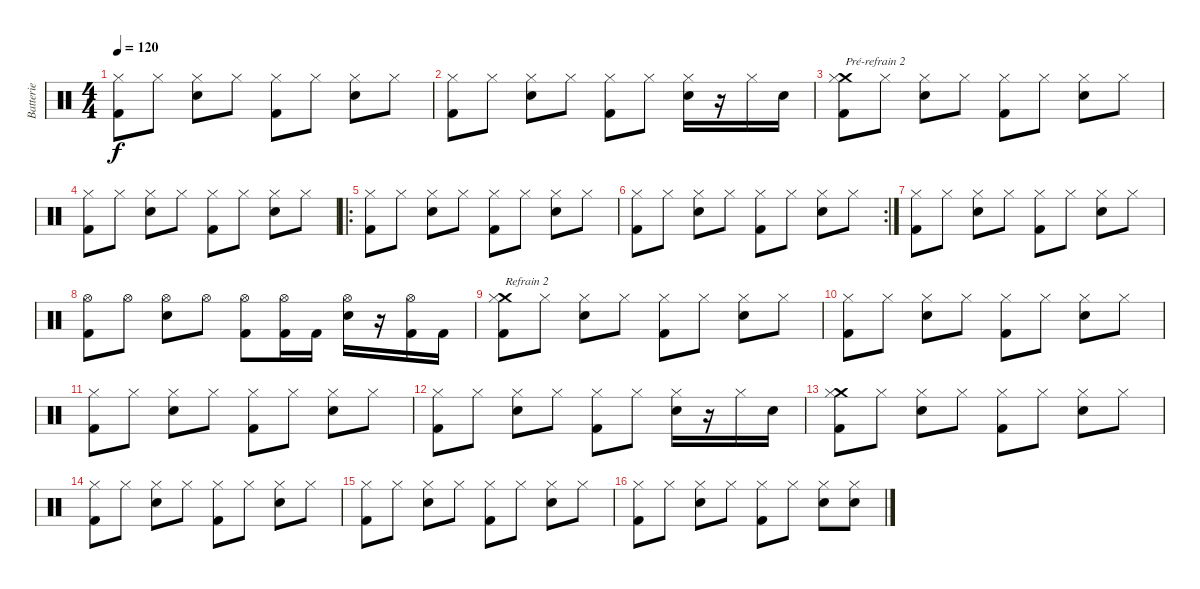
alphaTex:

\track ("Batterie" "Batterie") {instrument percussion}
\staff {score}
\articulation defaults
\ts (4 4)
\tempo 120
\clef neutral
\ks c
("Kick (hit) 2" "Hi-Hat (closed)").8{dy f} "Hi-Hat (closed)".8 ("Snare (hit) 2" "Hi-Hat (closed)").8 "Hi-Hat (closed)".8 ("Kick (hit) 2" "Hi-Hat (closed)").8 "Hi-Hat (closed)".8 ("Snare (hit) 2" "Hi-Hat (closed)").8 "Hi-Hat (closed)".8 |
("Kick (hit) 2" "Hi-Hat (closed)").8 "Hi-Hat (closed)".8 ("Snare (hit) 2" "Hi-Hat (closed)").8 "Hi-Hat (closed)".8 ("Kick (hit) 2" "Hi-Hat (closed)").8 "Hi-Hat (closed)".8 ("Snare (hit) 2" "Hi-Hat (closed)").16 r.16 "Hi-Hat (closed)".16 "Snare (hit) 2".16 |
("Kick (hit) 2" "Crash medium (hit)" "Hi-Hat (closed)").8{txt "Pré-refrain 2"} "Hi-Hat (closed)".8 ("Snare (hit) 2" "Hi-Hat (closed)").8 "Hi-Hat (closed)".8 ("Kick (hit) 2" "Hi-Hat (closed)").8 "Hi-Hat (closed)".8 ("Snare (hit) 2" "Hi-Hat (closed)").8 "Hi-Hat (closed)".8 |
("Kick (hit) 2" "Hi-Hat (closed)").8 "Hi-Hat (closed)".8 ("Snare (hit) 2" "Hi-Hat (closed)").8 "Hi-Hat (closed)".8 ("Kick (hit) 2" "Hi-Hat (closed)").8 "Hi-Hat (closed)".8 ("Snare (hit) 2" "Hi-Hat (closed)").8 "Hi-Hat (closed)".8 |
\ro
("Kick (hit) 2" "Hi-Hat (closed)").8 "Hi-Hat (closed)".8 ("Snare (hit) 2" "Hi-Hat (closed)").8 "Hi-Hat (closed)".8 ("Kick (hit) 2" "Hi-Hat (closed)").8 "Hi-Hat (closed)".8 ("Snare (hit) 2" "Hi-Hat (closed)").8 "Hi-Hat (closed)".8 |
\rc 2
("Kick (hit) 2" "Hi-Hat (closed)").8 "Hi-Hat (closed)".8 ("Snare (hit) 2" "Hi-Hat (closed)").8 "Hi-Hat (closed)".8 ("Kick (hit) 2" "Hi-Hat (closed)").8 "Hi-Hat (closed)".8 ("Snare (hit) 2" "Hi-Hat (closed)").8 "Hi-Hat (closed)".8 |
("Kick (hit) 2" "Hi-Hat (closed)").8 "Hi-Hat (closed)".8 ("Snare (hit) 2" "Hi-Hat (closed)").8 "Hi-Hat (closed)".8 ("Kick (hit) 2" "Hi-Hat (closed)").8 "Hi-Hat (closed)".8 ("Snare (hit) 2" "Hi-Hat (closed)").8 "Hi-Hat (closed)".8 |
("Kick (hit) 2" "Hi-Hat (open)").8 "Hi-Hat (open)".8 ("Snare (hit) 2" "Hi-Hat (open)").8 "Hi-Hat (open)".8 ("Kick (hit) 2" "Hi-Hat (open)").8 ("Kick (hit) 2" "Hi-Hat (open)").16 "Kick (hit) 2".16 ("Snare (hit) 2" "Hi-Hat (open)").16 r.16 ("Kick (hit) 2" "Hi-Hat (open)").16 "Kick (hit) 2".16 |
("Kick (hit) 2" "Crash medium (hit)" "Hi-Hat (closed)").8{txt "Refrain 2"} "Hi-Hat (closed)".8 ("Snare (hit) 2" "Hi-Hat (closed)").8 "Hi-Hat (closed)".8 ("Kick (hit) 2" "Hi-Hat (closed)").8 "Hi-Hat (closed)".8 ("Snare (hit) 2" "Hi-Hat (closed)").8 "Hi-Hat (closed)".8 |
("Kick (hit) 2" "Hi-Hat (closed)").8 "Hi-Hat (closed)".8 ("Snare (hit) 2" "Hi-Hat (closed)").8 "Hi-Hat (closed)".8 ("Kick (hit) 2" "Hi-Hat (closed)").8 "Hi-Hat (closed)".8 ("Snare (hit) 2" "Hi-Hat (closed)").8 "Hi-Hat (closed)".8 |
("Kick (hit) 2" "Hi-Hat (closed)").8 "Hi-Hat (closed)".8 ("Snare (hit) 2" "Hi-Hat (closed)").8 "Hi-Hat (closed)".8 ("Kick (hit) 2" "Hi-Hat (closed)").8 "Hi-Hat (closed)".8 ("Snare (hit) 2" "Hi-Hat (closed)").8 "Hi-Hat (closed)".8 |
("Kick (hit) 2" "Hi-Hat (closed)").8 "Hi-Hat (closed)".8 ("Snare (hit) 2" "Hi-Hat (closed)").8 "Hi-Hat (closed)".8 ("Kick (hit) 2" "Hi-Hat (closed)").8 "Hi-Hat (closed)".8 ("Snare (hit) 2" "Hi-Hat (closed)").16 r.16 "Hi-Hat (closed)".16 "Snare (hit) 2".16 |
("Kick (hit) 2" "Crash medium (hit)" "Hi-Hat (closed)").8 "Hi-Hat (closed)".8 ("Snare (hit) 2" "Hi-Hat (closed)").8 "Hi-Hat (closed)".8 ("Kick (hit) 2" "Hi-Hat (closed)").8 "Hi-Hat (closed)".8 ("Snare (hit) 2" "Hi-Hat (closed)").8 "Hi-Hat (closed)".8 |
("Kick (hit) 2" "Hi-Hat (closed)").8 "Hi-Hat (closed)".8 ("Snare (hit) 2" "Hi-Hat (closed)").8 "Hi-Hat (closed)".8 ("Kick (hit) 2" "Hi-Hat (closed)").8 "Hi-Hat (closed)".8 ("Snare (hit) 2" "Hi-Hat (closed)").8 "Hi-Hat (closed)".8 |
("Kick (hit) 2" "Hi-Hat (closed)").8 "Hi-Hat (closed)".8 ("Snare (hit) 2" "Hi-Hat (closed)").8 "Hi-Hat (closed)".8 ("Kick (hit) 2" "Hi-Hat (closed)").8 "Hi-Hat (closed)".8 ("Snare (hit) 2" "Hi-Hat (closed)").8 "Hi-Hat (closed)".8 |
("Kick (hit) 2" "Hi-Hat (closed)").8 "Hi-Hat (closed)".8 ("Snare (hit) 2" "Hi-Hat (closed)").8 "Hi-Hat (closed)".8 ("Kick (hit) 2" "Hi-Hat (closed)").8 "Hi-Hat (closed)".8 ("Snare (hit) 2" "Hi-Hat (closed)").8 ("Snare (hit) 2" "Hi-Hat (closed)").8
